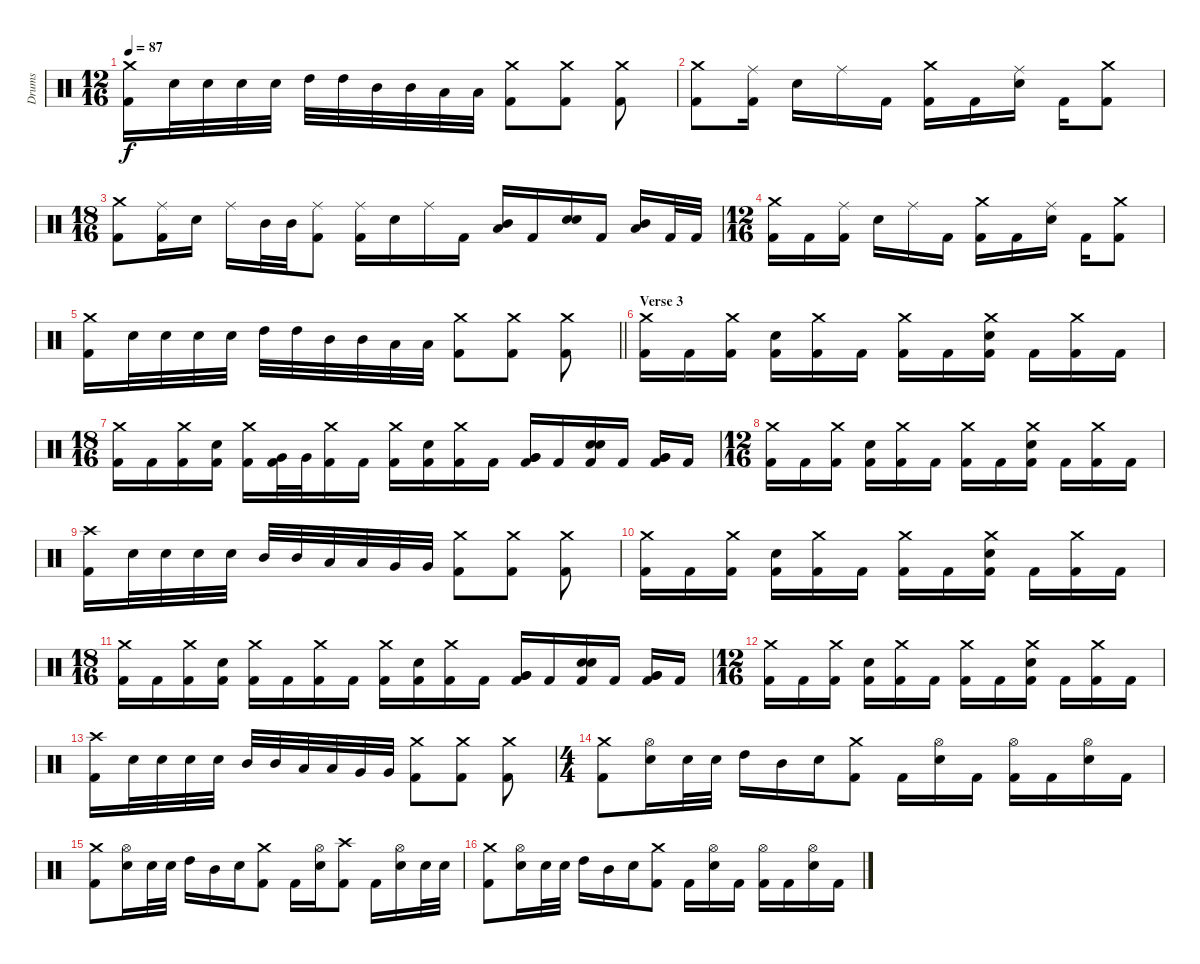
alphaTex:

\track ("Drums" "Drums") {instrument percussion}
\staff {score}
\articulation defaults
\ts (12 16)
\tempo 87
\clef neutral
\ks c
("Crash medium (hit)" "Kick (hit) 2").16{dy f} "Electric Snare (hit)".32 "Electric Snare (hit)".32 "Electric Snare (hit)".32 "Electric Snare (hit)".32 "High Tom (hit)".32 "High Tom (hit)".32 "Mid Tom (hit)".32 "Mid Tom (hit)".32 "Low Tom (hit)".32 "Low Tom (hit)".32 ("Crash medium (hit)" "Kick (hit) 2").8 ("Crash medium (hit)" "Kick (hit) 2").8 ("Crash medium (hit)" "Kick (hit) 2").8 |
("Crash medium (hit)" "Kick (hit) 2").8 ("Ride (middle)" "Kick (hit) 2").16 "Electric Snare (hit)".16 "Ride (middle)".16 "Kick (hit) 2".16 ("Crash medium (hit)" "Kick (hit) 2").16 "Kick (hit) 2".16 ("Ride (middle)" "Electric Snare (hit)").16 "Kick (hit) 2".16 ("Crash medium (hit)" "Kick (hit) 2").8 |
\ts (18 16)
("Crash medium (hit)" "Kick (hit) 2").8 ("Ride (middle)" "Kick (hit) 2").16 "Electric Snare (hit)".16 "Ride (middle)".16 "Mid Tom (hit)".32 "Mid Tom (hit)".32 ("Ride (middle)" "Kick (hit) 2").8 ("Ride (middle)" "Kick (hit) 2").16 "Electric Snare (hit)".16 "Ride (middle)".16 "Kick (hit) 2".16 ("Mid Tom (hit)" "Low Tom (hit)").16 "Kick (hit) 2".16 ("Electric Snare (hit)" "Electric Snare (hit)").16 "Kick (hit) 2".16 ("Mid Tom (hit)" "Low Tom (hit)").16 "Kick (hit) 2".32 "Kick (hit) 2".32 |
\ts (12 16)
("Crash medium (hit)" "Kick (hit) 2").16 "Kick (hit) 2".16 ("Ride (middle)" "Kick (hit) 2").16 "Electric Snare (hit)".16 "Ride (middle)".16 "Kick (hit) 2".16 ("Crash medium (hit)" "Kick (hit) 2").16 "Kick (hit) 2".16 ("Ride (middle)" "Electric Snare (hit)").16 "Kick (hit) 2".16 ("Crash medium (hit)" "Kick (hit) 2").8 |
\barLineRight lightlight
("Crash medium (hit)" "Kick (hit) 2").16 "Electric Snare (hit)".32 "Electric Snare (hit)".32 "Electric Snare (hit)".32 "Electric Snare (hit)".32 "High Tom (hit)".32 "High Tom (hit)".32 "Mid Tom (hit)".32 "Mid Tom (hit)".32 "Low Tom (hit)".32 "Low Tom (hit)".32 ("Crash medium (hit)" "Kick (hit) 2").8 ("Crash medium (hit)" "Kick (hit) 2").8 ("Crash medium (hit)" "Kick (hit) 2").8 |
\section ("" "Verse 3")
("Crash medium (hit)" "Kick (hit) 2").16 "Kick (hit) 2".16 ("Crash medium (hit)" "Kick (hit) 2").16 ("Electric Snare (hit)" "Kick (hit) 2").16 ("Crash medium (hit)" "Kick (hit) 2").16 "Kick (hit) 2".16 ("Crash medium (hit)" "Kick (hit) 2").16 "Kick (hit) 2".16 ("Crash medium (hit)" "Electric Snare (hit)" "Kick (hit) 2").16 "Kick (hit) 2".16 ("Crash medium (hit)" "Kick (hit) 2").16 "Kick (hit) 2".16 |
\ts (18 16)
("Crash medium (hit)" "Kick (hit) 2").16 "Kick (hit) 2".16 ("Crash medium (hit)" "Kick (hit) 2").16 ("Electric Snare (hit)" "Kick (hit) 2").16 ("Crash medium (hit)" "Kick (hit) 2").16 ("Very Low Tom (hit)" "Kick (hit) 2").32 "Very Low Tom (hit)".32 ("Crash medium (hit)" "Kick (hit) 2").16 "Kick (hit) 2".16 ("Crash medium (hit)" "Kick (hit) 2").16 ("Electric Snare (hit)" "Kick (hit) 2").16 ("Crash medium (hit)" "Kick (hit) 2").16 "Kick (hit) 2".16 ("Very Low Tom (hit)" "Very Low Tom (hit)" "Kick (hit) 2").16 "Kick (hit) 2".16 ("Electric Snare (hit)" "Electric Snare (hit)" "Kick (hit) 2").16 "Kick (hit) 2".16 ("Very Low Tom (hit)" "Very Low Tom (hit)" "Kick (hit) 2").16 "Kick (hit) 2".16 |
\ts (12 16)
("Crash medium (hit)" "Kick (hit) 2").16 "Kick (hit) 2".16 ("Crash medium (hit)" "Kick (hit) 2").16 ("Electric Snare (hit)" "Kick (hit) 2").16 ("Crash medium (hit)" "Kick (hit) 2").16 "Kick (hit) 2".16 ("Crash medium (hit)" "Kick (hit) 2").16 "Kick (hit) 2".16 ("Crash medium (hit)" "Electric Snare (hit)" "Kick (hit) 2").16 "Kick (hit) 2".16 ("Crash medium (hit)" "Kick (hit) 2").16 "Kick (hit) 2".16 |
("Crash high (hit)" "Kick (hit) 2").16 "Electric Snare (hit)".32 "Electric Snare (hit)".32 "Electric Snare (hit)".32 "Electric Snare (hit)".32 "Mid Tom (hit)".32 "Mid Tom (hit)".32 "Low Tom (hit)".32 "Low Tom (hit)".32 "Very Low Tom (hit)".32 "Very Low Tom (hit)".32 ("Crash medium (hit)" "Kick (hit) 2").8 ("Crash medium (hit)" "Kick (hit) 2").8 ("Crash medium (hit)" "Kick (hit) 2").8 |
("Crash medium (hit)" "Kick (hit) 2").16 "Kick (hit) 2".16 ("Crash medium (hit)" "Kick (hit) 2").16 ("Electric Snare (hit)" "Kick (hit) 2").16 ("Crash medium (hit)" "Kick (hit) 2").16 "Kick (hit) 2".16 ("Crash medium (hit)" "Kick (hit) 2").16 "Kick (hit) 2".16 ("Crash medium (hit)" "Electric Snare (hit)" "Kick (hit) 2").16 "Kick (hit) 2".16 ("Crash medium (hit)" "Kick (hit) 2").16 "Kick (hit) 2".16 |
\ts (18 16)
("Crash medium (hit)" "Kick (hit) 2").16 "Kick (hit) 2".16 ("Crash medium (hit)" "Kick (hit) 2").16 ("Electric Snare (hit)" "Kick (hit) 2").16 ("Crash medium (hit)" "Kick (hit) 2").16 "Kick (hit) 2".16 ("Crash medium (hit)" "Kick (hit) 2").16 "Kick (hit) 2".16 ("Crash medium (hit)" "Kick (hit) 2").16 ("Electric Snare (hit)" "Kick (hit) 2").16 ("Crash medium (hit)" "Kick (hit) 2").16 "Kick (hit) 2".16 ("Very Low Tom (hit)" "Very Low Tom (hit)" "Kick (hit) 2").16 "Kick (hit) 2".16 ("Electric Snare (hit)" "Electric Snare (hit)" "Kick (hit) 2").16 "Kick (hit) 2".16 ("Very Low Tom (hit)" "Very Low Tom (hit)" "Kick (hit) 2").16 "Kick (hit) 2".16 |
\ts (12 16)
("Crash medium (hit)" "Kick (hit) 2").16 "Kick (hit) 2".16 ("Crash medium (hit)" "Kick (hit) 2").16 ("Electric Snare (hit)" "Kick (hit) 2").16 ("Crash medium (hit)" "Kick (hit) 2").16 "Kick (hit) 2".16 ("Crash medium (hit)" "Kick (hit) 2").16 "Kick (hit) 2".16 ("Crash medium (hit)" "Electric Snare (hit)" "Kick (hit) 2").16 "Kick (hit) 2".16 ("Crash medium (hit)" "Kick (hit) 2").16 "Kick (hit) 2".16 |
("Crash high (hit)" "Kick (hit) 2").16 "Electric Snare (hit)".32 "Electric Snare (hit)".32 "Electric Snare (hit)".32 "Electric Snare (hit)".32 "Mid Tom (hit)".32 "Mid Tom (hit)".32 "Low Tom (hit)".32 "Low Tom (hit)".32 "Very Low Tom (hit)".32 "Very Low Tom (hit)".32 ("Crash medium (hit)" "Kick (hit) 2").8 ("Crash medium (hit)" "Kick (hit) 2").8 ("Crash medium (hit)" "Kick (hit) 2").8 |
\ts (4 4)
("Crash medium (hit)" "Kick (hit) 2").8 ("Hi-Hat (open)" "Electric Snare (hit)").16 "Electric Snare (hit)".32 "Electric Snare (hit)".32 "High Tom (hit)".16 "Mid Tom (hit)".16 "Electric Snare (hit)".16 ("Crash medium (hit)" "Kick (hit) 2").8 "Kick (hit) 2".16 ("Hi-Hat (open)" "Electric Snare (hit)").16 "Kick (hit) 2".16 ("Hi-Hat (open)" "Kick (hit) 2").16 "Kick (hit) 2".16 ("Hi-Hat (open)" "Electric Snare (hit)").16 "Kick (hit) 2".16 |
("Crash medium (hit)" "Kick (hit) 2").8 ("Hi-Hat (open)" "Electric Snare (hit)").16 "Electric Snare (hit)".32 "Electric Snare (hit)".32 "High Tom (hit)".16 "Mid Tom (hit)".16 "Electric Snare (hit)".16 ("Crash medium (hit)" "Kick (hit) 2").8 "Kick (hit) 2".16 ("Hi-Hat (open)" "Electric Snare (hit)").16 ("Crash high (hit)" "Kick (hit) 2").8 "Kick (hit) 2".16 ("Hi-Hat (open)" "Electric Snare (hit)").16 "Electric Snare (hit)".32 "Electric Snare (hit)".32 |
("Crash medium (hit)" "Kick (hit) 2").8 ("Hi-Hat (open)" "Electric Snare (hit)").16 "Electric Snare (hit)".32 "Electric Snare (hit)".32 "High Tom (hit)".16 "Mid Tom (hit)".16 "Electric Snare (hit)".16 ("Crash medium (hit)" "Kick (hit) 2").8 "Kick (hit) 2".16 ("Hi-Hat (open)" "Electric Snare (hit)").16 "Kick (hit) 2".16 ("Hi-Hat (open)" "Kick (hit) 2").16 "Kick (hit) 2".16 ("Hi-Hat (open)" "Electric Snare (hit)").16 "Kick (hit) 2".16
